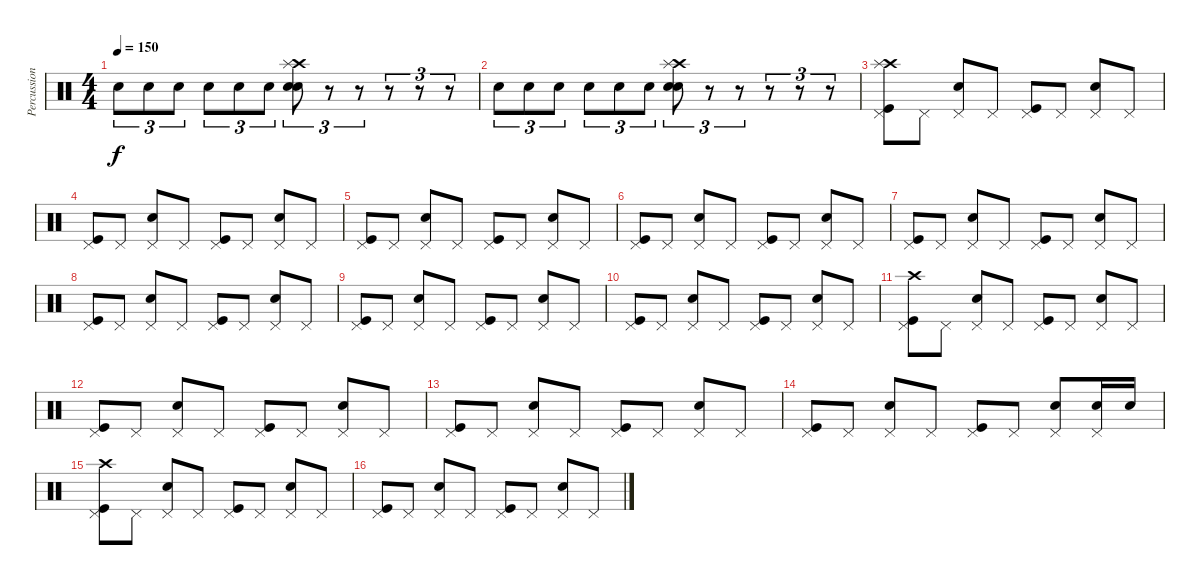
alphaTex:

\track ("Percussion" "Percussion") {instrument percussion}
\staff {score}
\articulation defaults
\ts (4 4)
\tempo 150
\clef neutral
\ks c "Electric Snare (hit)".8{tu (3 2) dy f} "Electric Snare (hit)".8{tu (3 2)} "Electric Snare (hit)".8{tu (3 2)} "Electric Snare (hit)".8{tu (3 2)} "Electric Snare (hit)".8{tu (3 2)} "Electric Snare (hit)".8{tu (3 2)}
("Crash high (hit)" "Electric Snare (hit)" "Snare (hit) 2" "Splash (hit)").8{tu (3 2)} r.8{tu (3 2)} r.8{tu (3 2)} r.8{tu (3 2)} r.8{tu (3 2)} r.8{tu (3 2)} |
"Electric Snare (hit)".8{tu (3 2)} "Electric Snare (hit)".8{tu (3 2)} "Electric Snare (hit)".8{tu (3 2)} "Electric Snare (hit)".8{tu (3 2)} "Electric Snare (hit)".8{tu (3 2)} "Electric Snare (hit)".8{tu (3 2)} ("Crash high (hit)" "Electric Snare (hit)" "Snare (hit) 2" "Splash (hit)").8{tu (3 2)} r.8{tu (3 2)} r.8{tu (3 2)} r.8{tu (3 2)} r.8{tu (3 2)} r.8{tu (3 2)} |
("Pedal Hi-Hat (hit)" "Crash high (hit)" "Kick (hit)" "Splash (hit)").8 "Pedal Hi-Hat (hit)".8 ("Pedal Hi-Hat (hit)" "Snare (hit) 2").8 "Pedal Hi-Hat (hit)".8 ("Pedal Hi-Hat (hit)" "Kick (hit)").8 "Pedal Hi-Hat (hit)".8 ("Pedal Hi-Hat (hit)" "Snare (hit) 2").8 "Pedal Hi-Hat (hit)".8 |
("Pedal Hi-Hat (hit)" "Kick (hit)").8 "Pedal Hi-Hat (hit)".8 ("Pedal Hi-Hat (hit)" "Snare (hit) 2").8 "Pedal Hi-Hat (hit)".8 ("Pedal Hi-Hat (hit)" "Kick (hit)").8 "Pedal Hi-Hat (hit)".8 ("Pedal Hi-Hat (hit)" "Snare (hit) 2").8 "Pedal Hi-Hat (hit)".8 |
("Pedal Hi-Hat (hit)" "Kick (hit)").8 "Pedal Hi-Hat (hit)".8 ("Pedal Hi-Hat (hit)" "Snare (hit) 2").8 "Pedal Hi-Hat (hit)".8 ("Pedal Hi-Hat (hit)" "Kick (hit)").8 "Pedal Hi-Hat (hit)".8 ("Pedal Hi-Hat (hit)" "Snare (hit) 2").8 "Pedal Hi-Hat (hit)".8 |
("Pedal Hi-Hat (hit)" "Kick (hit)").8 "Pedal Hi-Hat (hit)".8 ("Pedal Hi-Hat (hit)" "Snare (hit) 2").8 "Pedal Hi-Hat (hit)".8 ("Pedal Hi-Hat (hit)" "Kick (hit)").8 "Pedal Hi-Hat (hit)".8 ("Pedal Hi-Hat (hit)" "Snare (hit) 2").8 "Pedal Hi-Hat (hit)".8 |
("Pedal Hi-Hat (hit)" "Kick (hit)").8 "Pedal Hi-Hat (hit)".8 ("Pedal Hi-Hat (hit)" "Snare (hit) 2").8 "Pedal Hi-Hat (hit)".8 ("Pedal Hi-Hat (hit)" "Kick (hit)").8 "Pedal Hi-Hat (hit)".8 ("Pedal Hi-Hat (hit)" "Snare (hit) 2").8 "Pedal Hi-Hat (hit)".8 |
("Pedal Hi-Hat (hit)" "Kick (hit)").8 "Pedal Hi-Hat (hit)".8 ("Pedal Hi-Hat (hit)" "Snare (hit) 2").8 "Pedal Hi-Hat (hit)".8 ("Pedal Hi-Hat (hit)" "Kick (hit)").8 "Pedal Hi-Hat (hit)".8 ("Pedal Hi-Hat (hit)" "Snare (hit) 2").8 "Pedal Hi-Hat (hit)".8 |
("Pedal Hi-Hat (hit)" "Kick (hit)").8 "Pedal Hi-Hat (hit)".8 ("Pedal Hi-Hat (hit)" "Snare (hit) 2").8 "Pedal Hi-Hat (hit)".8 ("Pedal Hi-Hat (hit)" "Kick (hit)").8 "Pedal Hi-Hat (hit)".8 ("Pedal Hi-Hat (hit)" "Snare (hit) 2").8 "Pedal Hi-Hat (hit)".8 |
("Pedal Hi-Hat (hit)" "Kick (hit)").8 "Pedal Hi-Hat (hit)".8 ("Pedal Hi-Hat (hit)" "Snare (hit) 2").8 "Pedal Hi-Hat (hit)".8 ("Pedal Hi-Hat (hit)" "Kick (hit)").8 "Pedal Hi-Hat (hit)".8 ("Pedal Hi-Hat (hit)" "Snare (hit) 2").8 "Pedal Hi-Hat (hit)".8 |
("Pedal Hi-Hat (hit)" "Crash high (hit)" "Kick (hit)").8 "Pedal Hi-Hat (hit)".8 ("Pedal Hi-Hat (hit)" "Snare (hit) 2").8 "Pedal Hi-Hat (hit)".8 ("Pedal Hi-Hat (hit)" "Kick (hit)").8 "Pedal Hi-Hat (hit)".8 ("Pedal Hi-Hat (hit)" "Snare (hit) 2").8 "Pedal Hi-Hat (hit)".8 |
("Pedal Hi-Hat (hit)" "Kick (hit)").8 "Pedal Hi-Hat (hit)".8 ("Pedal Hi-Hat (hit)" "Snare (hit) 2").8 "Pedal Hi-Hat (hit)".8 ("Pedal Hi-Hat (hit)" "Kick (hit)").8 "Pedal Hi-Hat (hit)".8 ("Pedal Hi-Hat (hit)" "Snare (hit) 2").8 "Pedal Hi-Hat (hit)".8 |
("Pedal Hi-Hat (hit)" "Kick (hit)").8 "Pedal Hi-Hat (hit)".8 ("Pedal Hi-Hat (hit)" "Snare (hit) 2").8 "Pedal Hi-Hat (hit)".8 ("Pedal Hi-Hat (hit)" "Kick (hit)").8 "Pedal Hi-Hat (hit)".8 ("Pedal Hi-Hat (hit)" "Snare (hit) 2").8 "Pedal Hi-Hat (hit)".8 |
("Pedal Hi-Hat (hit)" "Kick (hit)").8 "Pedal Hi-Hat (hit)".8 ("Pedal Hi-Hat (hit)" "Snare (hit) 2").8 "Pedal Hi-Hat (hit)".8 ("Pedal Hi-Hat (hit)" "Kick (hit)").8 "Pedal Hi-Hat (hit)".8 ("Pedal Hi-Hat (hit)" "Snare (hit) 2").8 ("Pedal Hi-Hat (hit)" "Snare (hit) 2").16 "Snare (hit) 2".16 |
("Pedal Hi-Hat (hit)" "Crash high (hit)" "Kick (hit)").8 "Pedal Hi-Hat (hit)".8 ("Pedal Hi-Hat (hit)" "Snare (hit) 2").8 "Pedal Hi-Hat (hit)".8 ("Pedal Hi-Hat (hit)" "Kick (hit)").8 "Pedal Hi-Hat (hit)".8 ("Pedal Hi-Hat (hit)" "Snare (hit) 2").8 "Pedal Hi-Hat (hit)".8 |
("Pedal Hi-Hat (hit)" "Kick (hit)").8 "Pedal Hi-Hat (hit)".8 ("Pedal Hi-Hat (hit)" "Snare (hit) 2").8 "Pedal Hi-Hat (hit)".8 ("Pedal Hi-Hat (hit)" "Kick (hit)").8 "Pedal Hi-Hat (hit)".8 ("Pedal Hi-Hat (hit)" "Snare (hit) 2").8 "Pedal Hi-Hat (hit)".8
